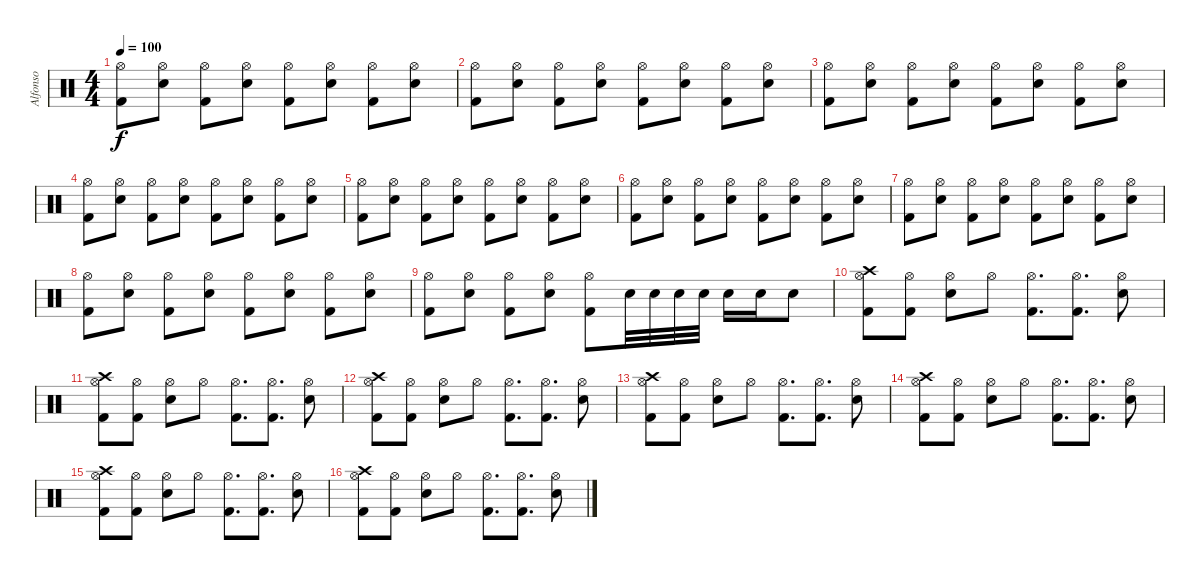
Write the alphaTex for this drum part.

\track ("Alfonso" "Alfonso") {instrument percussion}
\staff {score}
\articulation defaults
\ts (4 4)
\tempo 100
\clef neutral
\ks c
("Hi-Hat (open)" "Kick (hit) 2").8{dy f} ("Hi-Hat (open)" "Electric Snare (hit)").8 ("Hi-Hat (open)" "Kick (hit) 2").8 ("Hi-Hat (open)" "Electric Snare (hit)").8 ("Hi-Hat (open)" "Kick (hit) 2").8 ("Hi-Hat (open)" "Electric Snare (hit)").8 ("Hi-Hat (open)" "Kick (hit) 2").8 ("Hi-Hat (open)" "Electric Snare (hit)").8 |
("Hi-Hat (open)" "Kick (hit) 2").8 ("Hi-Hat (open)" "Electric Snare (hit)").8 ("Hi-Hat (open)" "Kick (hit) 2").8 ("Hi-Hat (open)" "Electric Snare (hit)").8 ("Hi-Hat (open)" "Kick (hit) 2").8 ("Hi-Hat (open)" "Electric Snare (hit)").8 ("Hi-Hat (open)" "Kick (hit) 2").8 ("Hi-Hat (open)" "Electric Snare (hit)").8 |
("Hi-Hat (open)" "Kick (hit) 2").8 ("Hi-Hat (open)" "Electric Snare (hit)").8 ("Hi-Hat (open)" "Kick (hit) 2").8 ("Hi-Hat (open)" "Electric Snare (hit)").8 ("Hi-Hat (open)" "Kick (hit) 2").8 ("Hi-Hat (open)" "Electric Snare (hit)").8 ("Hi-Hat (open)" "Kick (hit) 2").8 ("Hi-Hat (open)" "Electric Snare (hit)").8 |
("Hi-Hat (open)" "Kick (hit) 2").8 ("Hi-Hat (open)" "Electric Snare (hit)").8 ("Hi-Hat (open)" "Kick (hit) 2").8 ("Hi-Hat (open)" "Electric Snare (hit)").8 ("Hi-Hat (open)" "Kick (hit) 2").8 ("Hi-Hat (open)" "Electric Snare (hit)").8 ("Hi-Hat (open)" "Kick (hit) 2").8 ("Hi-Hat (open)" "Electric Snare (hit)").8 |
("Hi-Hat (open)" "Kick (hit) 2").8 ("Hi-Hat (open)" "Electric Snare (hit)").8 ("Hi-Hat (open)" "Kick (hit) 2").8 ("Hi-Hat (open)" "Electric Snare (hit)").8 ("Hi-Hat (open)" "Kick (hit) 2").8 ("Hi-Hat (open)" "Electric Snare (hit)").8 ("Hi-Hat (open)" "Kick (hit) 2").8 ("Hi-Hat (open)" "Electric Snare (hit)").8 |
("Hi-Hat (open)" "Kick (hit) 2").8 ("Hi-Hat (open)" "Electric Snare (hit)").8 ("Hi-Hat (open)" "Kick (hit) 2").8 ("Hi-Hat (open)" "Electric Snare (hit)").8 ("Hi-Hat (open)" "Kick (hit) 2").8 ("Hi-Hat (open)" "Electric Snare (hit)").8 ("Hi-Hat (open)" "Kick (hit) 2").8 ("Hi-Hat (open)" "Electric Snare (hit)").8 |
("Hi-Hat (open)" "Kick (hit) 2").8 ("Hi-Hat (open)" "Electric Snare (hit)").8 ("Hi-Hat (open)" "Kick (hit) 2").8 ("Hi-Hat (open)" "Electric Snare (hit)").8 ("Hi-Hat (open)" "Kick (hit) 2").8 ("Hi-Hat (open)" "Electric Snare (hit)").8 ("Hi-Hat (open)" "Kick (hit) 2").8 ("Hi-Hat (open)" "Electric Snare (hit)").8 |
("Hi-Hat (open)" "Kick (hit) 2").8 ("Hi-Hat (open)" "Electric Snare (hit)").8 ("Hi-Hat (open)" "Kick (hit) 2").8 ("Hi-Hat (open)" "Electric Snare (hit)").8 ("Hi-Hat (open)" "Kick (hit) 2").8 ("Hi-Hat (open)" "Electric Snare (hit)").8 ("Hi-Hat (open)" "Kick (hit) 2").8 ("Hi-Hat (open)" "Electric Snare (hit)").8 |
("Hi-Hat (open)" "Kick (hit) 2").8 ("Hi-Hat (open)" "Electric Snare (hit)").8 ("Hi-Hat (open)" "Kick (hit) 2").8 ("Hi-Hat (open)" "Electric Snare (hit)").8 ("Hi-Hat (open)" "Kick (hit) 2").8 "Electric Snare (hit)".32 "Electric Snare (hit)".32 "Electric Snare (hit)".32 "Electric Snare (hit)".32 "Electric Snare (hit)".16 "Electric Snare (hit)".16 "Electric Snare (hit)".8 |
("Hi-Hat (open)" "Kick (hit) 2" "Crash high (hit)").8 ("Hi-Hat (open)" "Kick (hit) 2").8 ("Hi-Hat (open)" "Snare (hit) 2").8 "Hi-Hat (open)".8 ("Hi-Hat (open)" "Kick (hit) 2").8{d} ("Hi-Hat (open)" "Kick (hit) 2").8{d} ("Hi-Hat (open)" "Snare (hit) 2").8 |
("Hi-Hat (open)" "Kick (hit) 2" "Crash high (hit)").8 ("Hi-Hat (open)" "Kick (hit) 2").8 ("Hi-Hat (open)" "Snare (hit) 2").8 "Hi-Hat (open)".8 ("Hi-Hat (open)" "Kick (hit) 2").8{d} ("Hi-Hat (open)" "Kick (hit) 2").8{d} ("Hi-Hat (open)" "Snare (hit) 2").8 |
("Hi-Hat (open)" "Kick (hit) 2" "Crash high (hit)").8 ("Hi-Hat (open)" "Kick (hit) 2").8 ("Hi-Hat (open)" "Snare (hit) 2").8 "Hi-Hat (open)".8 ("Hi-Hat (open)" "Kick (hit) 2").8{d} ("Hi-Hat (open)" "Kick (hit) 2").8{d} ("Hi-Hat (open)" "Snare (hit) 2").8 |
("Hi-Hat (open)" "Kick (hit) 2" "Crash high (hit)").8 ("Hi-Hat (open)" "Kick (hit) 2").8 ("Hi-Hat (open)" "Snare (hit) 2").8 "Hi-Hat (open)".8 ("Hi-Hat (open)" "Kick (hit) 2").8{d} ("Hi-Hat (open)" "Kick (hit) 2").8{d} ("Hi-Hat (open)" "Snare (hit) 2").8 |
("Hi-Hat (open)" "Kick (hit) 2" "Crash high (hit)").8 ("Hi-Hat (open)" "Kick (hit) 2").8 ("Hi-Hat (open)" "Snare (hit) 2").8 "Hi-Hat (open)".8 ("Hi-Hat (open)" "Kick (hit) 2").8{d} ("Hi-Hat (open)" "Kick (hit) 2").8{d} ("Hi-Hat (open)" "Snare (hit) 2").8 |
("Hi-Hat (open)" "Kick (hit) 2" "Crash high (hit)").8 ("Hi-Hat (open)" "Kick (hit) 2").8 ("Hi-Hat (open)" "Snare (hit) 2").8 "Hi-Hat (open)".8 ("Hi-Hat (open)" "Kick (hit) 2").8{d} ("Hi-Hat (open)" "Kick (hit) 2").8{d} ("Hi-Hat (open)" "Snare (hit) 2").8 |
("Hi-Hat (open)" "Kick (hit) 2" "Crash high (hit)").8 ("Hi-Hat (open)" "Kick (hit) 2").8 ("Hi-Hat (open)" "Snare (hit) 2").8 "Hi-Hat (open)".8 ("Hi-Hat (open)" "Kick (hit) 2").8{d} ("Hi-Hat (open)" "Kick (hit) 2").8{d} ("Hi-Hat (open)" "Snare (hit) 2").8
